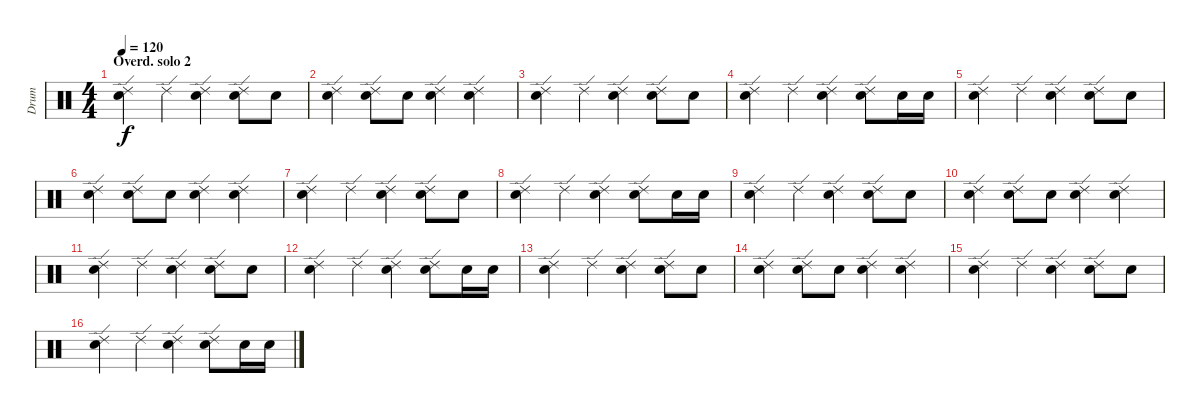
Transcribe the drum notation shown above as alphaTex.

\track ("Drum" "Drum") {instrument percussion}
\staff {score}
\articulation defaults
\ts (4 4)
\section ("" "Overd. solo 2")
\tempo 120
\clef neutral
\ks c
("Electric Snare (hit)" "Ride (edge) 2").4{dy f} "Ride (edge) 2".4 ("Electric Snare (hit)" "Ride (edge) 2").4 ("Electric Snare (hit)" "Ride (edge) 2").8 "Electric Snare (hit)".8 |
("Electric Snare (hit)" "Ride (edge) 2").4 ("Electric Snare (hit)" "Ride (edge) 2").8 "Electric Snare (hit)".8 ("Electric Snare (hit)" "Ride (edge) 2").4 ("Electric Snare (hit)" "Ride (edge) 2").4 |
("Electric Snare (hit)" "Ride (edge) 2").4 "Ride (edge) 2".4 ("Electric Snare (hit)" "Ride (edge) 2").4 ("Electric Snare (hit)" "Ride (edge) 2").8 "Electric Snare (hit)".8 |
("Electric Snare (hit)" "Ride (edge) 2").4 "Ride (edge) 2".4 ("Electric Snare (hit)" "Ride (edge) 2").4 ("Electric Snare (hit)" "Ride (edge) 2").8 "Electric Snare (hit)".16 "Electric Snare (hit)".16 |
("Electric Snare (hit)" "Ride (edge) 2").4 "Ride (edge) 2".4 ("Electric Snare (hit)" "Ride (edge) 2").4 ("Electric Snare (hit)" "Ride (edge) 2").8 "Electric Snare (hit)".8 |
("Electric Snare (hit)" "Ride (edge) 2").4 ("Electric Snare (hit)" "Ride (edge) 2").8 "Electric Snare (hit)".8 ("Electric Snare (hit)" "Ride (edge) 2").4 ("Electric Snare (hit)" "Ride (edge) 2").4 |
("Electric Snare (hit)" "Ride (edge) 2").4 "Ride (edge) 2".4 ("Electric Snare (hit)" "Ride (edge) 2").4 ("Electric Snare (hit)" "Ride (edge) 2").8 "Electric Snare (hit)".8 |
("Electric Snare (hit)" "Ride (edge) 2").4 "Ride (edge) 2".4 ("Electric Snare (hit)" "Ride (edge) 2").4 ("Electric Snare (hit)" "Ride (edge) 2").8 "Electric Snare (hit)".16 "Electric Snare (hit)".16 |
("Electric Snare (hit)" "Ride (edge) 2").4 "Ride (edge) 2".4 ("Electric Snare (hit)" "Ride (edge) 2").4 ("Electric Snare (hit)" "Ride (edge) 2").8 "Electric Snare (hit)".8 |
("Electric Snare (hit)" "Ride (edge) 2").4 ("Electric Snare (hit)" "Ride (edge) 2").8 "Electric Snare (hit)".8 ("Electric Snare (hit)" "Ride (edge) 2").4 ("Electric Snare (hit)" "Ride (edge) 2").4 |
("Electric Snare (hit)" "Ride (edge) 2").4 "Ride (edge) 2".4 ("Electric Snare (hit)" "Ride (edge) 2").4 ("Electric Snare (hit)" "Ride (edge) 2").8 "Electric Snare (hit)".8 |
("Electric Snare (hit)" "Ride (edge) 2").4 "Ride (edge) 2".4 ("Electric Snare (hit)" "Ride (edge) 2").4 ("Electric Snare (hit)" "Ride (edge) 2").8 "Electric Snare (hit)".16 "Electric Snare (hit)".16 |
("Electric Snare (hit)" "Ride (edge) 2").4 "Ride (edge) 2".4 ("Electric Snare (hit)" "Ride (edge) 2").4 ("Electric Snare (hit)" "Ride (edge) 2").8 "Electric Snare (hit)".8 |
("Electric Snare (hit)" "Ride (edge) 2").4 ("Electric Snare (hit)" "Ride (edge) 2").8 "Electric Snare (hit)".8 ("Electric Snare (hit)" "Ride (edge) 2").4 ("Electric Snare (hit)" "Ride (edge) 2").4 |
("Electric Snare (hit)" "Ride (edge) 2").4 "Ride (edge) 2".4 ("Electric Snare (hit)" "Ride (edge) 2").4 ("Electric Snare (hit)" "Ride (edge) 2").8 "Electric Snare (hit)".8 |
("Electric Snare (hit)" "Ride (edge) 2").4 "Ride (edge) 2".4 ("Electric Snare (hit)" "Ride (edge) 2").4 ("Electric Snare (hit)" "Ride (edge) 2").8 "Electric Snare (hit)".16 "Electric Snare (hit)".16
